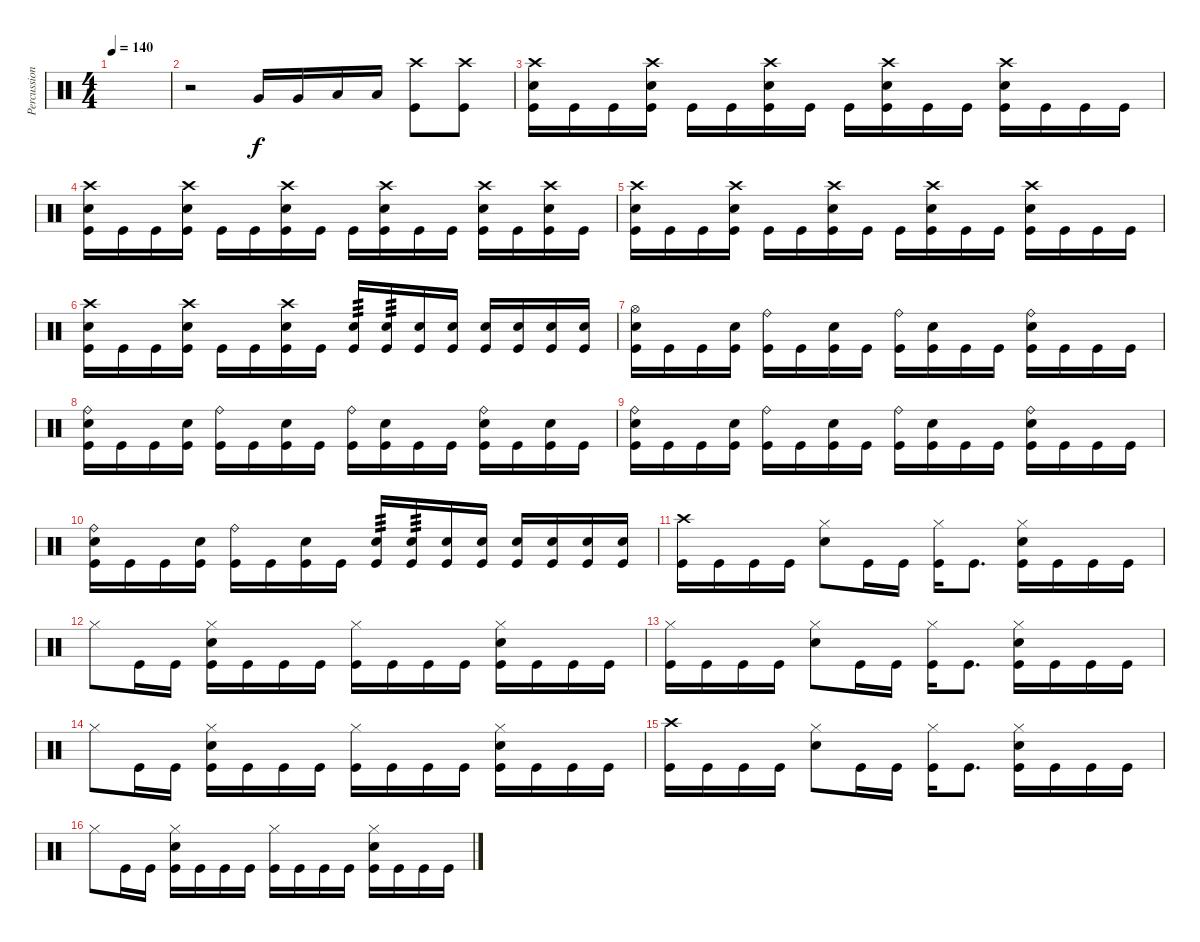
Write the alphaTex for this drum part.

\track ("Percussion" "Percussion") {instrument percussion}
\staff {score}
\articulation defaults
\ts (4 4)
\tempo 140
\clef neutral
\ks c
|
r.2 "Very Low Tom (hit)".16 "Very Low Tom (hit)".16 "Low Floor Tom (hit)".16 "Low Floor Tom (hit)".16 ("Crash high (hit)" "Kick (hit)").8 ("Crash high (hit)" "Kick (hit)").8 |
("Crash high (hit)" "Electric Snare (hit)" "Kick (hit)").16 "Kick (hit)".16 "Kick (hit)".16 ("Crash high (hit)" "Electric Snare (hit)" "Kick (hit)").16 "Kick (hit)".16 "Kick (hit)".16 ("Crash high (hit)" "Electric Snare (hit)" "Kick (hit)").16 "Kick (hit)".16 "Kick (hit)".16 ("Crash high (hit)" "Electric Snare (hit)" "Kick (hit)").16 "Kick (hit)".16 "Kick (hit)".16 ("Crash high (hit)" "Electric Snare (hit)" "Kick (hit)").16 "Kick (hit)".16 "Kick (hit)".16 "Kick (hit)".16 |
("Crash high (hit)" "Electric Snare (hit)" "Kick (hit)").16 "Kick (hit)".16 "Kick (hit)".16 ("Crash high (hit)" "Electric Snare (hit)" "Kick (hit)").16 "Kick (hit)".16 "Kick (hit)".16 ("Crash high (hit)" "Electric Snare (hit)" "Kick (hit)").16 "Kick (hit)".16 "Kick (hit)".16 ("Crash high (hit)" "Electric Snare (hit)" "Kick (hit)").16 "Kick (hit)".16 "Kick (hit)".16 ("Crash high (hit)" "Electric Snare (hit)" "Kick (hit)").16 "Kick (hit)".16 ("Crash high (hit)" "Electric Snare (hit)" "Kick (hit)").16 "Kick (hit)".16 |
("Crash high (hit)" "Electric Snare (hit)" "Kick (hit)").16 "Kick (hit)".16 "Kick (hit)".16 ("Crash high (hit)" "Electric Snare (hit)" "Kick (hit)").16 "Kick (hit)".16 "Kick (hit)".16 ("Crash high (hit)" "Electric Snare (hit)" "Kick (hit)").16 "Kick (hit)".16 "Kick (hit)".16 ("Crash high (hit)" "Electric Snare (hit)" "Kick (hit)").16 "Kick (hit)".16 "Kick (hit)".16 ("Crash high (hit)" "Electric Snare (hit)" "Kick (hit)").16 "Kick (hit)".16 "Kick (hit)".16 "Kick (hit)".16 |
("Crash high (hit)" "Electric Snare (hit)" "Kick (hit)").16 "Kick (hit)".16 "Kick (hit)".16 ("Crash high (hit)" "Electric Snare (hit)" "Kick (hit)").16 "Kick (hit)".16 "Kick (hit)".16 ("Crash high (hit)" "Electric Snare (hit)" "Kick (hit)").16 "Kick (hit)".16 ("Electric Snare (hit)" "Kick (hit)").16{tp 3} ("Electric Snare (hit)" "Kick (hit)").16{tp 3} ("Electric Snare (hit)" "Kick (hit)").16 ("Electric Snare (hit)" "Kick (hit)").16 ("Electric Snare (hit)" "Kick (hit)").16 ("Electric Snare (hit)" "Kick (hit)").16 ("Electric Snare (hit)" "Kick (hit)").16 ("Electric Snare (hit)" "Kick (hit)").16 |
("Hi-Hat (open)" "Electric Snare (hit)" "Kick (hit)").16 "Kick (hit)".16 "Kick (hit)".16 ("Electric Snare (hit)" "Kick (hit)").16 ("Ride (bell)" "Kick (hit)").16 "Kick (hit)".16 ("Electric Snare (hit)" "Kick (hit)").16 "Kick (hit)".16 ("Ride (bell)" "Kick (hit)").16 ("Electric Snare (hit)" "Kick (hit)").16 "Kick (hit)".16 "Kick (hit)".16 ("Ride (bell)" "Electric Snare (hit)" "Kick (hit)").16 "Kick (hit)".16 "Kick (hit)".16 "Kick (hit)".16 |
("Ride (bell)" "Electric Snare (hit)" "Kick (hit)").16 "Kick (hit)".16 "Kick (hit)".16 ("Electric Snare (hit)" "Kick (hit)").16 ("Ride (bell)" "Kick (hit)").16 "Kick (hit)".16 ("Electric Snare (hit)" "Kick (hit)").16 "Kick (hit)".16 ("Ride (bell)" "Kick (hit)").16 ("Electric Snare (hit)" "Kick (hit)").16 "Kick (hit)".16 "Kick (hit)".16 ("Ride (bell)" "Electric Snare (hit)" "Kick (hit)").16 "Kick (hit)".16 ("Electric Snare (hit)" "Kick (hit)").16 "Kick (hit)".16 |
("Ride (bell)" "Electric Snare (hit)" "Kick (hit)").16 "Kick (hit)".16 "Kick (hit)".16 ("Electric Snare (hit)" "Kick (hit)").16 ("Ride (bell)" "Kick (hit)").16 "Kick (hit)".16 ("Electric Snare (hit)" "Kick (hit)").16 "Kick (hit)".16 ("Ride (bell)" "Kick (hit)").16 ("Electric Snare (hit)" "Kick (hit)").16 "Kick (hit)".16 "Kick (hit)".16 ("Ride (bell)" "Electric Snare (hit)" "Kick (hit)").16 "Kick (hit)".16 "Kick (hit)".16 "Kick (hit)".16 |
("Ride (bell)" "Electric Snare (hit)" "Kick (hit)").16 "Kick (hit)".16 "Kick (hit)".16 ("Electric Snare (hit)" "Kick (hit)").16 ("Ride (bell)" "Kick (hit)").16 "Kick (hit)".16 ("Electric Snare (hit)" "Kick (hit)").16 "Kick (hit)".16 ("Electric Snare (hit)" "Kick (hit)").16{tp 3} ("Electric Snare (hit)" "Kick (hit)").16{tp 3} ("Electric Snare (hit)" "Kick (hit)").16 ("Electric Snare (hit)" "Kick (hit)").16 ("Electric Snare (hit)" "Kick (hit)").16 ("Electric Snare (hit)" "Kick (hit)").16 ("Electric Snare (hit)" "Kick (hit)").16 ("Electric Snare (hit)" "Kick (hit)").16 |
("Crash high (hit)" "Kick (hit)").16 "Kick (hit)".16 "Kick (hit)".16 "Kick (hit)".16 ("Hi-Hat (closed)" "Electric Snare (hit)").8 "Kick (hit)".16 "Kick (hit)".16 ("Hi-Hat (closed)" "Kick (hit)").16 "Kick (hit)".8{d} ("Hi-Hat (closed)" "Electric Snare (hit)" "Kick (hit)").16 "Kick (hit)".16 "Kick (hit)".16 "Kick (hit)".16 |
"Hi-Hat (closed)".8 "Kick (hit)".16 "Kick (hit)".16 ("Hi-Hat (closed)" "Electric Snare (hit)" "Kick (hit)").16 "Kick (hit)".16 "Kick (hit)".16 "Kick (hit)".16 ("Hi-Hat (closed)" "Kick (hit)").16 "Kick (hit)".16 "Kick (hit)".16 "Kick (hit)".16 ("Hi-Hat (closed)" "Electric Snare (hit)" "Kick (hit)").16 "Kick (hit)".16 "Kick (hit)".16 "Kick (hit)".16 |
("Hi-Hat (closed)" "Kick (hit)").16 "Kick (hit)".16 "Kick (hit)".16 "Kick (hit)".16 ("Hi-Hat (closed)" "Electric Snare (hit)").8 "Kick (hit)".16 "Kick (hit)".16 ("Hi-Hat (closed)" "Kick (hit)").16 "Kick (hit)".8{d} ("Hi-Hat (closed)" "Electric Snare (hit)" "Kick (hit)").16 "Kick (hit)".16 "Kick (hit)".16 "Kick (hit)".16 |
"Hi-Hat (closed)".8 "Kick (hit)".16 "Kick (hit)".16 ("Hi-Hat (closed)" "Electric Snare (hit)" "Kick (hit)").16 "Kick (hit)".16 "Kick (hit)".16 "Kick (hit)".16 ("Hi-Hat (closed)" "Kick (hit)").16 "Kick (hit)".16 "Kick (hit)".16 "Kick (hit)".16 ("Hi-Hat (closed)" "Electric Snare (hit)" "Kick (hit)").16 "Kick (hit)".16 "Kick (hit)".16 "Kick (hit)".16 |
("Crash high (hit)" "Kick (hit)").16 "Kick (hit)".16 "Kick (hit)".16 "Kick (hit)".16 ("Hi-Hat (closed)" "Electric Snare (hit)").8 "Kick (hit)".16 "Kick (hit)".16 ("Hi-Hat (closed)" "Kick (hit)").16 "Kick (hit)".8{d} ("Hi-Hat (closed)" "Electric Snare (hit)" "Kick (hit)").16 "Kick (hit)".16 "Kick (hit)".16 "Kick (hit)".16 |
"Hi-Hat (closed)".8 "Kick (hit)".16 "Kick (hit)".16 ("Hi-Hat (closed)" "Electric Snare (hit)" "Kick (hit)").16 "Kick (hit)".16 "Kick (hit)".16 "Kick (hit)".16 ("Hi-Hat (closed)" "Kick (hit)").16 "Kick (hit)".16 "Kick (hit)".16 "Kick (hit)".16 ("Hi-Hat (closed)" "Electric Snare (hit)" "Kick (hit)").16 "Kick (hit)".16 "Kick (hit)".16 "Kick (hit)".16
